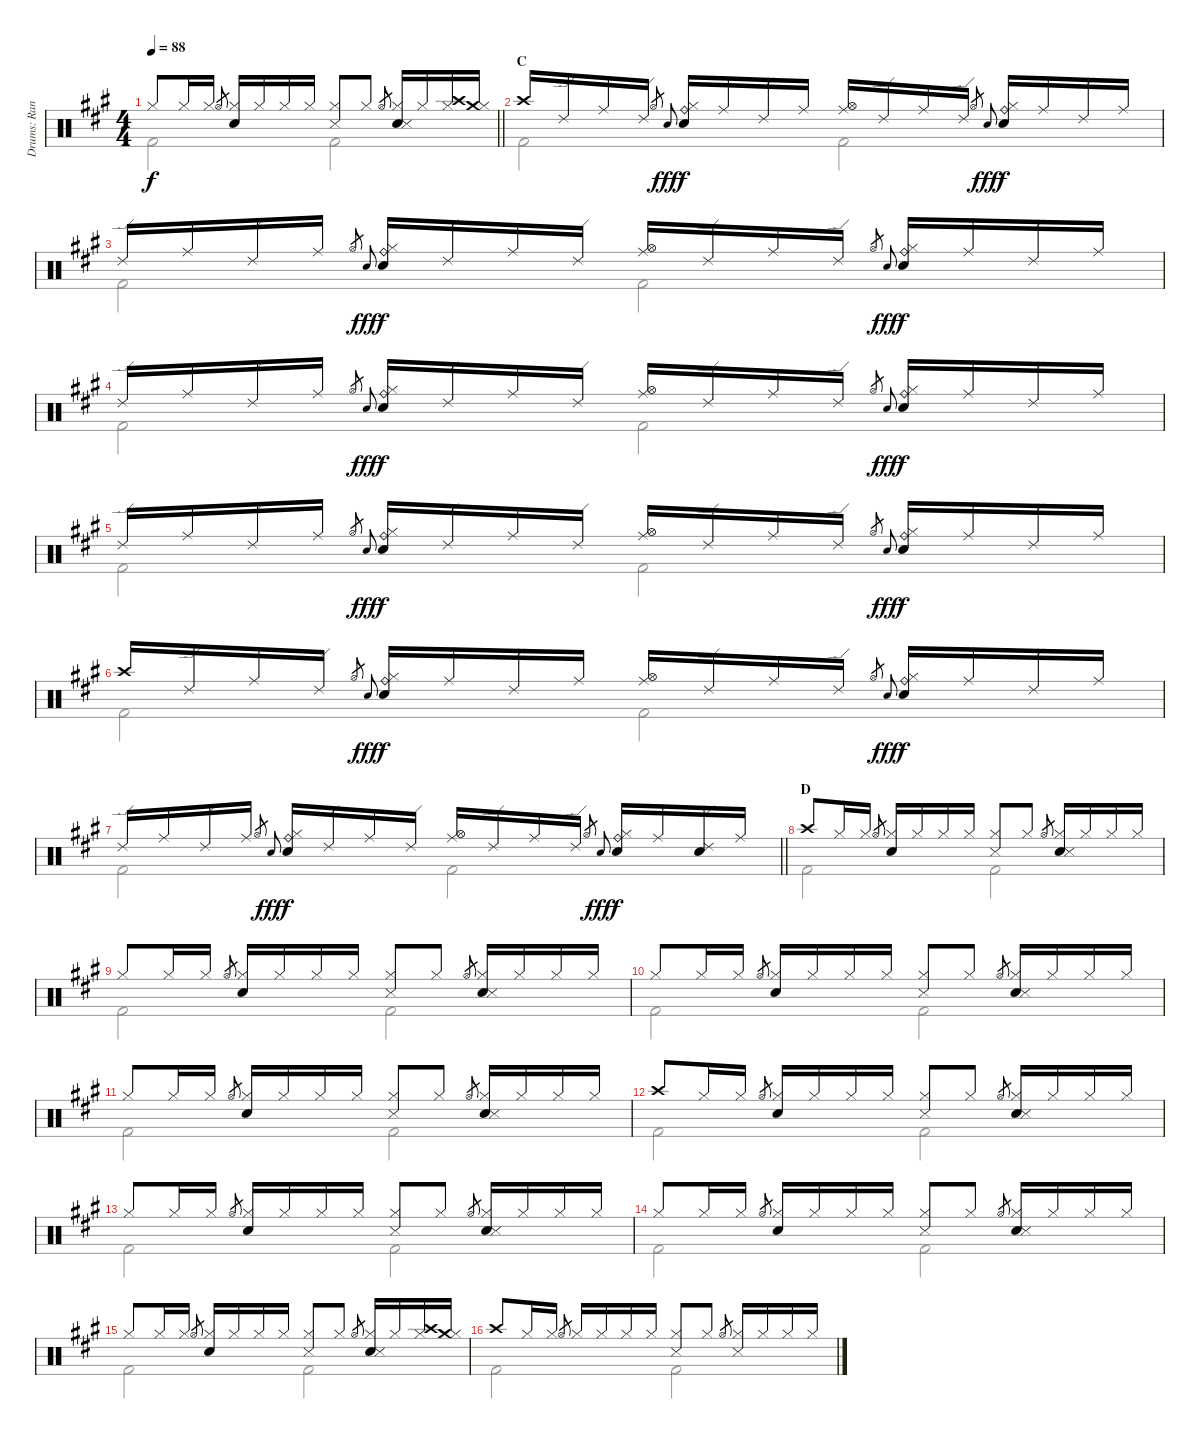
\track ("Drums: Randy" "Drums: Ran") {instrument percussion}
\staff {score}
\articulation defaults
\voice
\ts (4 4)
\tempo 88
\clef neutral
\barLineRight lightlight
\ks a "Hi-Hat (closed)".8{dy f} "Hi-Hat (closed)".16 "Hi-Hat (closed)".16 "Hi-Hat (open)".8{gr}
("Hi-Hat (closed)" "Electric Snare (hit)").16 "Hi-Hat (closed)".16 "Hi-Hat (closed)".16 "Hi-Hat (closed)".16 ("Hi-Hat (closed)" "Snare (side stick) 3").8 "Hi-Hat (closed)".8 "Hi-Hat (open)".8{gr} ("Hi-Hat (closed)" "Electric Snare (hit)" "Snare (side stick) 3").16 "Hi-Hat (closed)".16 ("Crash high (hit)" "Hi-Hat (closed)").16 ("Crash medium (hit)" "Hi-Hat (closed)").16 |
\section ("" "C")
"Crash high (hit)".16 "Ride (edge) 2".16 "Ride (middle)".16 "Ride (edge) 2".16 "Hi-Hat (open)".16{gr} "Electric Snare (hit)".16{gr onbeat dy fff} ("Ride (bell)" "Hi-Hat (closed)" "Snare (hit) 2").16{dy f} "Ride (middle)".16 "Ride (edge) 2".16 "Ride (middle)".16 ("Ride (middle)" "Hi-Hat (open)").16 "Ride (edge) 2".16 "Ride (middle)".16 "Ride (edge) 2".16 "Hi-Hat (open)".16{gr} "Electric Snare (hit)".16{gr onbeat dy fff} ("Ride (bell)" "Hi-Hat (closed)" "Snare (hit) 2").16{dy f} "Ride (middle)".16 "Ride (edge) 2".16 "Ride (middle)".16 |
"Ride (edge) 2".16 "Ride (middle)".16 "Ride (edge) 2".16 "Ride (middle)".16 "Hi-Hat (open)".16{gr} "Electric Snare (hit)".16{gr onbeat dy fff} ("Ride (bell)" "Hi-Hat (closed)" "Snare (hit) 2").16{dy f} "Ride (edge) 2".16 "Ride (middle)".16 "Ride (edge) 2".16 ("Ride (middle)" "Hi-Hat (open)").16 "Ride (edge) 2".16 "Ride (middle)".16 "Ride (edge) 2".16 "Hi-Hat (open)".16{gr} "Electric Snare (hit)".16{gr onbeat dy fff} ("Ride (bell)" "Hi-Hat (closed)" "Snare (hit) 2").16{dy f} "Ride (middle)".16 "Ride (edge) 2".16 "Ride (middle)".16 |
"Ride (edge) 2".16 "Ride (middle)".16 "Ride (edge) 2".16 "Ride (middle)".16 "Hi-Hat (open)".16{gr} "Electric Snare (hit)".16{gr onbeat dy fff} ("Ride (bell)" "Hi-Hat (closed)" "Snare (hit) 2").16{dy f} "Ride (edge) 2".16 "Ride (middle)".16 "Ride (edge) 2".16 ("Ride (middle)" "Hi-Hat (open)").16 "Ride (edge) 2".16 "Ride (middle)".16 "Ride (edge) 2".16 "Hi-Hat (open)".16{gr} "Electric Snare (hit)".16{gr onbeat dy fff} ("Ride (bell)" "Hi-Hat (closed)" "Snare (hit) 2").16{dy f} "Ride (middle)".16 "Ride (edge) 2".16 "Ride (middle)".16 |
"Ride (edge) 2".16 "Ride (middle)".16 "Ride (edge) 2".16 "Ride (middle)".16 "Hi-Hat (open)".16{gr} "Electric Snare (hit)".16{gr onbeat dy fff} ("Ride (bell)" "Hi-Hat (closed)" "Snare (hit) 2").16{dy f} "Ride (edge) 2".16 "Ride (middle)".16 "Ride (edge) 2".16 ("Ride (middle)" "Hi-Hat (open)").16 "Ride (edge) 2".16 "Ride (middle)".16 "Ride (edge) 2".16 "Hi-Hat (open)".16{gr} "Electric Snare (hit)".16{gr onbeat dy fff} ("Ride (bell)" "Hi-Hat (closed)" "Snare (hit) 2").16{dy f} "Ride (middle)".16 "Ride (edge) 2".16 "Ride (middle)".16 |
"Crash high (hit)".16 "Ride (edge) 2".16 "Ride (middle)".16 "Ride (edge) 2".16 "Hi-Hat (open)".16{gr} "Electric Snare (hit)".16{gr onbeat dy fff} ("Ride (bell)" "Hi-Hat (closed)" "Snare (hit) 2").16{dy f} "Ride (middle)".16 "Ride (edge) 2".16 "Ride (middle)".16 ("Ride (middle)" "Hi-Hat (open)").16 "Ride (edge) 2".16 "Ride (middle)".16 "Ride (edge) 2".16 "Hi-Hat (open)".16{gr} "Electric Snare (hit)".16{gr onbeat dy fff} ("Ride (bell)" "Hi-Hat (closed)" "Snare (hit) 2").16{dy f} "Ride (middle)".16 "Ride (edge) 2".16 "Ride (middle)".16 |
\barLineRight lightlight "Ride (edge) 2".16 "Ride (middle)".16 "Ride (edge) 2".16 "Ride (middle)".16 "Hi-Hat (open)".16{gr} "Electric Snare (hit)".16{gr onbeat dy fff}
("Ride (bell)" "Hi-Hat (closed)" "Snare (hit) 2").16{dy f} "Ride (edge) 2".16 "Ride (middle)".16 "Ride (edge) 2".16 ("Ride (middle)" "Hi-Hat (open)").16 "Ride (edge) 2".16 "Ride (middle)".16 "Ride (edge) 2".16 "Hi-Hat (open)".16{gr} "Electric Snare (hit)".16{gr onbeat dy fff} ("Ride (bell)" "Hi-Hat (closed)" "Snare (hit) 2").16{dy f} "Ride (middle)".16 ("Ride (edge) 2" "Snare (hit) 2").16 "Ride (middle)".16 |
\section ("" "D")
"Crash high (hit)".8 "Hi-Hat (closed)".16 "Hi-Hat (closed)".16 "Hi-Hat (open)".8{gr} ("Hi-Hat (closed)" "Electric Snare (hit)").16 "Hi-Hat (closed)".16 "Hi-Hat (closed)".16 "Hi-Hat (closed)".16 ("Hi-Hat (closed)" "Snare (side stick) 3").8 "Hi-Hat (closed)".8 "Hi-Hat (open)".8{gr} ("Hi-Hat (closed)" "Electric Snare (hit)" "Snare (side stick) 3").16 "Hi-Hat (closed)".16 "Hi-Hat (closed)".16 "Hi-Hat (closed)".16 |
"Hi-Hat (closed)".8 "Hi-Hat (closed)".16 "Hi-Hat (closed)".16 "Hi-Hat (open)".8{gr} ("Hi-Hat (closed)" "Electric Snare (hit)").16 "Hi-Hat (closed)".16 "Hi-Hat (closed)".16 "Hi-Hat (closed)".16 ("Hi-Hat (closed)" "Snare (side stick) 3").8 "Hi-Hat (closed)".8 "Hi-Hat (open)".8{gr} ("Hi-Hat (closed)" "Electric Snare (hit)" "Snare (side stick) 3").16 "Hi-Hat (closed)".16 "Hi-Hat (closed)".16 "Hi-Hat (closed)".16 |
"Hi-Hat (closed)".8 "Hi-Hat (closed)".16 "Hi-Hat (closed)".16 "Hi-Hat (open)".8{gr} ("Hi-Hat (closed)" "Electric Snare (hit)").16 "Hi-Hat (closed)".16 "Hi-Hat (closed)".16 "Hi-Hat (closed)".16 ("Hi-Hat (closed)" "Snare (side stick) 3").8 "Hi-Hat (closed)".8 "Hi-Hat (open)".8{gr} ("Hi-Hat (closed)" "Electric Snare (hit)" "Snare (side stick) 3").16 "Hi-Hat (closed)".16 "Hi-Hat (closed)".16 "Hi-Hat (closed)".16 |
"Hi-Hat (closed)".8 "Hi-Hat (closed)".16 "Hi-Hat (closed)".16 "Hi-Hat (open)".8{gr} ("Hi-Hat (closed)" "Electric Snare (hit)").16 "Hi-Hat (closed)".16 "Hi-Hat (closed)".16 "Hi-Hat (closed)".16 ("Hi-Hat (closed)" "Snare (side stick) 3").8 "Hi-Hat (closed)".8 "Hi-Hat (open)".8{gr} ("Hi-Hat (closed)" "Electric Snare (hit)" "Snare (side stick) 3").16 "Hi-Hat (closed)".16 "Hi-Hat (closed)".16 "Hi-Hat (closed)".16 |
"Crash high (hit)".8 "Hi-Hat (closed)".16 "Hi-Hat (closed)".16 "Hi-Hat (open)".8{gr} ("Hi-Hat (closed)" "Electric Snare (hit)").16 "Hi-Hat (closed)".16 "Hi-Hat (closed)".16 "Hi-Hat (closed)".16 ("Hi-Hat (closed)" "Snare (side stick) 3").8 "Hi-Hat (closed)".8 "Hi-Hat (open)".8{gr} ("Hi-Hat (closed)" "Electric Snare (hit)" "Snare (side stick) 3").16 "Hi-Hat (closed)".16 "Hi-Hat (closed)".16 "Hi-Hat (closed)".16 |
"Hi-Hat (closed)".8 "Hi-Hat (closed)".16 "Hi-Hat (closed)".16 "Hi-Hat (open)".8{gr} ("Hi-Hat (closed)" "Electric Snare (hit)").16 "Hi-Hat (closed)".16 "Hi-Hat (closed)".16 "Hi-Hat (closed)".16 ("Hi-Hat (closed)" "Snare (side stick) 3").8 "Hi-Hat (closed)".8 "Hi-Hat (open)".8{gr} ("Hi-Hat (closed)" "Electric Snare (hit)" "Snare (side stick) 3").16 "Hi-Hat (closed)".16 "Hi-Hat (closed)".16 "Hi-Hat (closed)".16 |
"Hi-Hat (closed)".8 "Hi-Hat (closed)".16 "Hi-Hat (closed)".16 "Hi-Hat (open)".8{gr} ("Hi-Hat (closed)" "Electric Snare (hit)").16 "Hi-Hat (closed)".16 "Hi-Hat (closed)".16 "Hi-Hat (closed)".16 ("Hi-Hat (closed)" "Snare (side stick) 3").8 "Hi-Hat (closed)".8 "Hi-Hat (open)".8{gr} ("Hi-Hat (closed)" "Electric Snare (hit)" "Snare (side stick) 3").16 "Hi-Hat (closed)".16 "Hi-Hat (closed)".16 "Hi-Hat (closed)".16 |
"Hi-Hat (closed)".8 "Hi-Hat (closed)".16 "Hi-Hat (closed)".16 "Hi-Hat (open)".8{gr} ("Hi-Hat (closed)" "Electric Snare (hit)").16 "Hi-Hat (closed)".16 "Hi-Hat (closed)".16 "Hi-Hat (closed)".16 ("Hi-Hat (closed)" "Snare (side stick) 3").8 "Hi-Hat (closed)".8 "Hi-Hat (open)".8{gr} ("Hi-Hat (closed)" "Electric Snare (hit)" "Snare (side stick) 3").16 "Hi-Hat (closed)".16 ("Crash high (hit)" "Hi-Hat (closed)").16 ("Crash medium (hit)" "Hi-Hat (closed)").16 |
"Crash high (hit)".8 "Hi-Hat (closed)".16 "Hi-Hat (closed)".16 "Hi-Hat (open)".8{gr} "Hi-Hat (closed)".16 "Hi-Hat (closed)".16 "Hi-Hat (closed)".16 "Hi-Hat (closed)".16 ("Hi-Hat (closed)" "Snare (side stick) 3").8 "Hi-Hat (closed)".8 "Hi-Hat (open)".8{gr} ("Hi-Hat (closed)" "Snare (side stick) 3").16 "Hi-Hat (closed)".16 "Hi-Hat (closed)".16 "Hi-Hat (closed)".16
\voice
\clef neutral
\ottava regular
\simile none
\barLineRight lightlight
\ks a "Kick (hit) 2".2{dy f} "Kick (hit) 2".2
|
"Kick (hit) 2".2 "Kick (hit) 2".2 |
"Kick (hit) 2".2 "Kick (hit) 2".2 |
"Kick (hit) 2".2 "Kick (hit) 2".2 |
"Kick (hit) 2".2 "Kick (hit) 2".2 |
"Kick (hit) 2".2 "Kick (hit) 2".2 |
\barLineRight lightlight "Kick (hit) 2".2 "Kick (hit) 2".2
|
"Kick (hit) 2".2 "Kick (hit) 2".2 |
"Kick (hit) 2".2 "Kick (hit) 2".2 |
"Kick (hit) 2".2 "Kick (hit) 2".2 |
"Kick (hit) 2".2 "Kick (hit) 2".2 |
"Kick (hit) 2".2 "Kick (hit) 2".2 |
"Kick (hit) 2".2 "Kick (hit) 2".2 |
"Kick (hit) 2".2 "Kick (hit) 2".2 |
"Kick (hit) 2".2 "Kick (hit) 2".2 |
"Kick (hit) 2".2 "Kick (hit) 2".2
